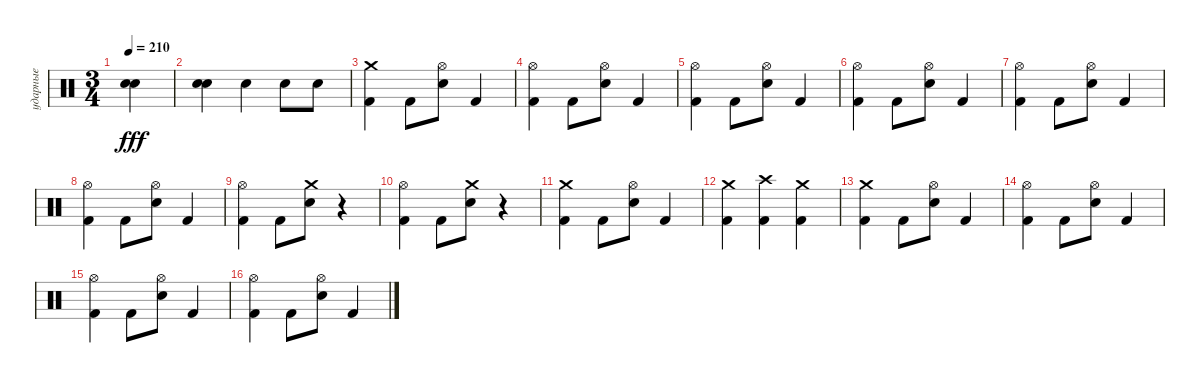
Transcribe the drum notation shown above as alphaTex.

\track ("ударные" "ударные") {instrument percussion}
\staff {score}
\articulation defaults
\ts (3 4)
\tempo 210
\clef neutral
\ks c
("Snare (hit) 2" "Snare (hit) 2").4{bd 240 dy fff} |
("Snare (hit) 2" "Snare (hit) 2").4{bd 240} "Snare (hit) 2".4 "Snare (hit) 2".8 "Snare (hit) 2".8 |
("Crash medium (hit)" "Kick (hit) 2").4 "Kick (hit) 2".8 ("Hi-Hat (open)" "Snare (hit) 2").8 "Kick (hit) 2".4 |
("Hi-Hat (open)" "Kick (hit) 2").4 "Kick (hit) 2".8 ("Hi-Hat (open)" "Snare (hit) 2").8 "Kick (hit) 2".4 |
("Hi-Hat (open)" "Kick (hit) 2").4 "Kick (hit) 2".8 ("Hi-Hat (open)" "Snare (hit) 2").8 "Kick (hit) 2".4 |
("Hi-Hat (open)" "Kick (hit) 2").4 "Kick (hit) 2".8 ("Hi-Hat (open)" "Snare (hit) 2").8 "Kick (hit) 2".4 |
("Hi-Hat (open)" "Kick (hit) 2").4 "Kick (hit) 2".8 ("Hi-Hat (open)" "Snare (hit) 2").8 "Kick (hit) 2".4 |
("Hi-Hat (open)" "Kick (hit) 2").4 "Kick (hit) 2".8 ("Hi-Hat (open)" "Snare (hit) 2").8 "Kick (hit) 2".4 |
("Hi-Hat (open)" "Kick (hit) 2").4 "Kick (hit) 2".8 ("Crash medium (hit)" "Snare (hit) 2").8 r.4 |
("Hi-Hat (open)" "Kick (hit) 2").4 "Kick (hit) 2".8 ("Crash medium (hit)" "Snare (hit) 2").8 r.4 |
("Crash medium (hit)" "Kick (hit) 2").4 "Kick (hit) 2".8 ("Hi-Hat (open)" "Snare (hit) 2").8 "Kick (hit) 2".4 |
("Crash medium (hit)" "Kick (hit) 2").4 ("Crash high (hit)" "Kick (hit) 2").4 ("Crash medium (hit)" "Kick (hit) 2").4 |
("Crash medium (hit)" "Kick (hit) 2").4 "Kick (hit) 2".8 ("Hi-Hat (open)" "Snare (hit) 2").8 "Kick (hit) 2".4 |
("Hi-Hat (open)" "Kick (hit) 2").4 "Kick (hit) 2".8 ("Hi-Hat (open)" "Snare (hit) 2").8 "Kick (hit) 2".4 |
("Hi-Hat (open)" "Kick (hit) 2").4 "Kick (hit) 2".8 ("Hi-Hat (open)" "Snare (hit) 2").8 "Kick (hit) 2".4 |
("Hi-Hat (open)" "Kick (hit) 2").4 "Kick (hit) 2".8 ("Hi-Hat (open)" "Snare (hit) 2").8 "Kick (hit) 2".4
